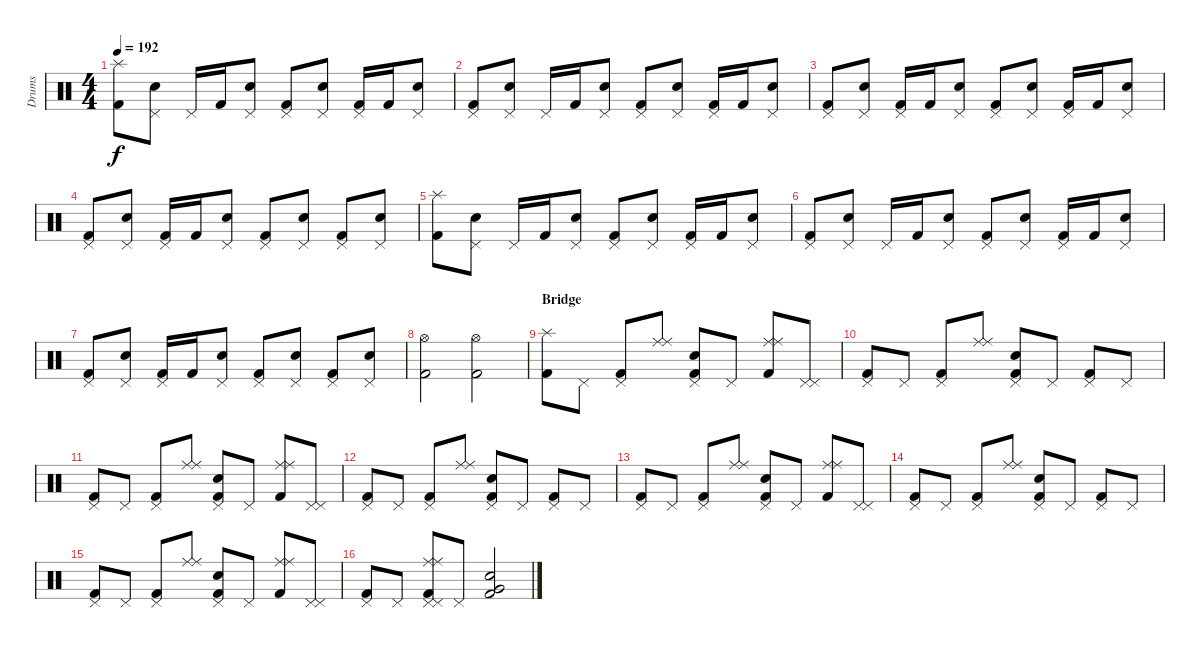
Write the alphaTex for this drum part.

\track ("Drums" "Drums") {instrument percussion}
\staff {score}
\articulation defaults
\ts (4 4)
\tempo 192
\clef neutral
\ks c
("Splash (hit)" "Kick (hit) 2").8{dy f} ("Pedal Hi-Hat (hit)" "Electric Snare (hit)").8 "Pedal Hi-Hat (hit)".16 "Kick (hit) 2".16 ("Pedal Hi-Hat (hit)" "Electric Snare (hit)").8 ("Pedal Hi-Hat (hit)" "Kick (hit) 2").8 ("Pedal Hi-Hat (hit)" "Electric Snare (hit)").8 ("Pedal Hi-Hat (hit)" "Kick (hit) 2").16 "Kick (hit) 2".16 ("Pedal Hi-Hat (hit)" "Electric Snare (hit)").8 |
("Pedal Hi-Hat (hit)" "Kick (hit) 2").8 ("Pedal Hi-Hat (hit)" "Electric Snare (hit)").8 "Pedal Hi-Hat (hit)".16 "Kick (hit) 2".16 ("Pedal Hi-Hat (hit)" "Electric Snare (hit)").8 ("Pedal Hi-Hat (hit)" "Kick (hit) 2").8 ("Pedal Hi-Hat (hit)" "Electric Snare (hit)").8 ("Pedal Hi-Hat (hit)" "Kick (hit) 2").16 "Kick (hit) 2".16 ("Pedal Hi-Hat (hit)" "Electric Snare (hit)").8 |
("Pedal Hi-Hat (hit)" "Kick (hit) 2").8 ("Pedal Hi-Hat (hit)" "Electric Snare (hit)").8 ("Pedal Hi-Hat (hit)" "Kick (hit) 2").16 "Kick (hit) 2".16 ("Pedal Hi-Hat (hit)" "Electric Snare (hit)").8 ("Pedal Hi-Hat (hit)" "Kick (hit) 2").8 ("Pedal Hi-Hat (hit)" "Electric Snare (hit)").8 ("Pedal Hi-Hat (hit)" "Kick (hit) 2").16 "Kick (hit) 2".16 ("Pedal Hi-Hat (hit)" "Electric Snare (hit)").8 |
("Pedal Hi-Hat (hit)" "Kick (hit) 2").8 ("Pedal Hi-Hat (hit)" "Electric Snare (hit)").8 ("Pedal Hi-Hat (hit)" "Kick (hit) 2").16 "Kick (hit) 2".16 ("Pedal Hi-Hat (hit)" "Electric Snare (hit)").8 ("Pedal Hi-Hat (hit)" "Kick (hit) 2").8 ("Pedal Hi-Hat (hit)" "Electric Snare (hit)").8 ("Pedal Hi-Hat (hit)" "Kick (hit) 2").8 ("Pedal Hi-Hat (hit)" "Electric Snare (hit)").8 |
("Splash (hit)" "Kick (hit) 2").8 ("Pedal Hi-Hat (hit)" "Electric Snare (hit)").8 "Pedal Hi-Hat (hit)".16 "Kick (hit) 2".16 ("Pedal Hi-Hat (hit)" "Electric Snare (hit)").8 ("Pedal Hi-Hat (hit)" "Kick (hit) 2").8 ("Pedal Hi-Hat (hit)" "Electric Snare (hit)").8 ("Pedal Hi-Hat (hit)" "Kick (hit) 2").16 "Kick (hit) 2".16 ("Pedal Hi-Hat (hit)" "Electric Snare (hit)").8 |
("Pedal Hi-Hat (hit)" "Kick (hit) 2").8 ("Pedal Hi-Hat (hit)" "Electric Snare (hit)").8 "Pedal Hi-Hat (hit)".16 "Kick (hit) 2".16 ("Pedal Hi-Hat (hit)" "Electric Snare (hit)").8 ("Pedal Hi-Hat (hit)" "Kick (hit) 2").8 ("Pedal Hi-Hat (hit)" "Electric Snare (hit)").8 ("Pedal Hi-Hat (hit)" "Kick (hit) 2").16 "Kick (hit) 2".16 ("Pedal Hi-Hat (hit)" "Electric Snare (hit)").8 |
("Pedal Hi-Hat (hit)" "Kick (hit) 2").8 ("Pedal Hi-Hat (hit)" "Electric Snare (hit)").8 ("Pedal Hi-Hat (hit)" "Kick (hit) 2").16 "Kick (hit) 2".16 ("Pedal Hi-Hat (hit)" "Electric Snare (hit)").8 ("Pedal Hi-Hat (hit)" "Kick (hit) 2").8 ("Pedal Hi-Hat (hit)" "Electric Snare (hit)").8 ("Pedal Hi-Hat (hit)" "Kick (hit) 2").8 ("Pedal Hi-Hat (hit)" "Electric Snare (hit)").8 |
("Hi-Hat (open)" "Kick (hit) 2").2 ("Hi-Hat (open)" "Kick (hit) 2").2 |
\section ("" "Bridge")
("Splash (hit)" "Kick (hit) 2").8 "Pedal Hi-Hat (hit)".8 ("Pedal Hi-Hat (hit)" "Kick (hit) 2").8 ("Ride (middle)" "Ride (middle)").8 ("Pedal Hi-Hat (hit)" "Electric Snare (hit)" "Kick (hit) 2").8 "Pedal Hi-Hat (hit)".8 ("Ride (middle)" "Ride (middle)" "Kick (hit) 2").8 ("Pedal Hi-Hat (hit)" "Pedal Hi-Hat (hit)").8 |
("Pedal Hi-Hat (hit)" "Kick (hit) 2").8 "Pedal Hi-Hat (hit)".8 ("Pedal Hi-Hat (hit)" "Kick (hit) 2").8 ("Ride (middle)" "Ride (middle)").8 ("Pedal Hi-Hat (hit)" "Electric Snare (hit)" "Kick (hit) 2").8 "Pedal Hi-Hat (hit)".8 ("Pedal Hi-Hat (hit)" "Kick (hit) 2").8 "Pedal Hi-Hat (hit)".8 |
("Pedal Hi-Hat (hit)" "Kick (hit) 2").8 "Pedal Hi-Hat (hit)".8 ("Pedal Hi-Hat (hit)" "Kick (hit) 2").8 ("Ride (middle)" "Ride (middle)").8 ("Pedal Hi-Hat (hit)" "Electric Snare (hit)" "Kick (hit) 2").8 "Pedal Hi-Hat (hit)".8 ("Ride (middle)" "Ride (middle)" "Kick (hit) 2").8 ("Pedal Hi-Hat (hit)" "Pedal Hi-Hat (hit)").8 |
("Pedal Hi-Hat (hit)" "Kick (hit) 2").8 "Pedal Hi-Hat (hit)".8 ("Pedal Hi-Hat (hit)" "Kick (hit) 2").8 ("Ride (middle)" "Ride (middle)").8 ("Pedal Hi-Hat (hit)" "Electric Snare (hit)" "Kick (hit) 2").8 "Pedal Hi-Hat (hit)".8 ("Pedal Hi-Hat (hit)" "Kick (hit) 2").8 "Pedal Hi-Hat (hit)".8 |
("Pedal Hi-Hat (hit)" "Kick (hit) 2").8 "Pedal Hi-Hat (hit)".8 ("Pedal Hi-Hat (hit)" "Kick (hit) 2").8 ("Ride (middle)" "Ride (middle)").8 ("Pedal Hi-Hat (hit)" "Electric Snare (hit)" "Kick (hit) 2").8 "Pedal Hi-Hat (hit)".8 ("Ride (middle)" "Ride (middle)" "Kick (hit) 2").8 ("Pedal Hi-Hat (hit)" "Pedal Hi-Hat (hit)").8 |
("Pedal Hi-Hat (hit)" "Kick (hit) 2").8 "Pedal Hi-Hat (hit)".8 ("Pedal Hi-Hat (hit)" "Kick (hit) 2").8 ("Ride (middle)" "Ride (middle)").8 ("Pedal Hi-Hat (hit)" "Electric Snare (hit)" "Kick (hit) 2").8 "Pedal Hi-Hat (hit)".8 ("Pedal Hi-Hat (hit)" "Kick (hit) 2").8 "Pedal Hi-Hat (hit)".8 |
("Pedal Hi-Hat (hit)" "Kick (hit) 2").8 "Pedal Hi-Hat (hit)".8 ("Pedal Hi-Hat (hit)" "Kick (hit) 2").8 ("Ride (middle)" "Ride (middle)").8 ("Pedal Hi-Hat (hit)" "Electric Snare (hit)" "Kick (hit) 2").8 "Pedal Hi-Hat (hit)".8 ("Ride (middle)" "Ride (middle)" "Kick (hit) 2").8 ("Pedal Hi-Hat (hit)" "Pedal Hi-Hat (hit)").8 |
("Pedal Hi-Hat (hit)" "Kick (hit) 2").8 "Pedal Hi-Hat (hit)".8 ("Ride (middle)" "Ride (middle)" "Pedal Hi-Hat (hit)" "Pedal Hi-Hat (hit)" "Kick (hit) 2").8 "Pedal Hi-Hat (hit)".8 ("Very Low Tom (hit)" "Electric Snare (hit)" "Kick (hit) 2").2
